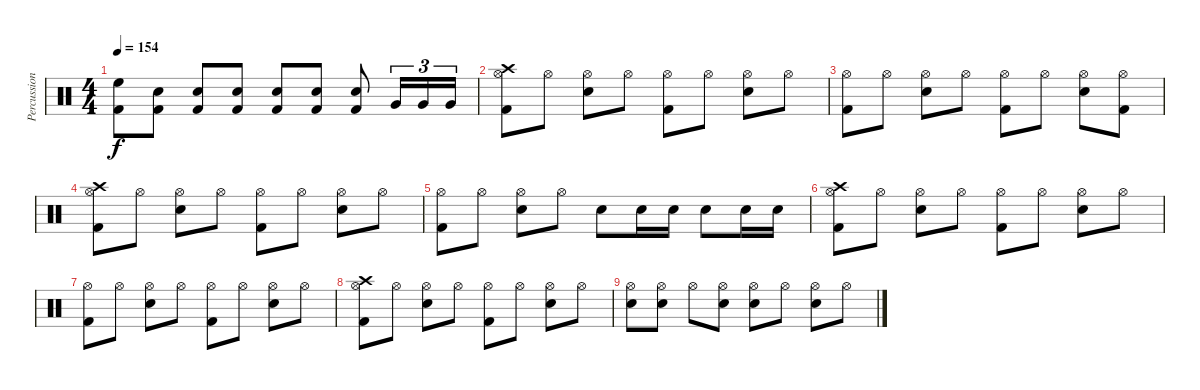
\track ("Percussion" "Percussion") {instrument percussion}
\staff {score}
\articulation defaults
\ts (4 4)
\tempo 154
\clef neutral
\ks c
("High Floor Tom (hit)" "Kick (hit) 2").8{dy f} ("Snare (hit) 2" "Kick (hit) 2").8 ("Snare (hit) 2" "Kick (hit) 2").8 ("Snare (hit) 2" "Kick (hit) 2").8 ("Snare (hit) 2" "Kick (hit) 2").8 ("Snare (hit) 2" "Kick (hit) 2").8 ("Snare (hit) 2" "Kick (hit) 2").8 "Very Low Tom (hit)".16{tu (3 2)} "Very Low Tom (hit)".16{tu (3 2)} "Very Low Tom (hit)".16{tu (3 2)} |
("Hi-Hat (open)" "Crash high (hit)" "Kick (hit) 2").8 "Hi-Hat (open)".8 ("Hi-Hat (open)" "Snare (hit) 2").8 "Hi-Hat (open)".8 ("Hi-Hat (open)" "Kick (hit) 2").8 "Hi-Hat (open)".8 ("Hi-Hat (open)" "Snare (hit) 2").8 "Hi-Hat (open)".8 |
("Hi-Hat (open)" "Kick (hit) 2").8 "Hi-Hat (open)".8 ("Hi-Hat (open)" "Snare (hit) 2").8 "Hi-Hat (open)".8 ("Hi-Hat (open)" "Kick (hit) 2").8 "Hi-Hat (open)".8 ("Hi-Hat (open)" "Snare (hit) 2").8 ("Hi-Hat (open)" "Kick (hit) 2").8 |
("Hi-Hat (open)" "Crash high (hit)" "Kick (hit) 2").8 "Hi-Hat (open)".8 ("Hi-Hat (open)" "Snare (hit) 2").8 "Hi-Hat (open)".8 ("Hi-Hat (open)" "Kick (hit) 2").8 "Hi-Hat (open)".8 ("Hi-Hat (open)" "Snare (hit) 2").8 "Hi-Hat (open)".8 |
("Hi-Hat (open)" "Kick (hit) 2").8 "Hi-Hat (open)".8 ("Hi-Hat (open)" "Snare (hit) 2").8 "Hi-Hat (open)".8 "Snare (hit) 2".8 "Snare (hit) 2".16 "Snare (hit) 2".16 "Snare (hit) 2".8 "Snare (hit) 2".16 "Snare (hit) 2".16 |
("Hi-Hat (open)" "Crash high (hit)" "Kick (hit) 2").8 "Hi-Hat (open)".8 ("Hi-Hat (open)" "Snare (hit) 2").8 "Hi-Hat (open)".8 ("Hi-Hat (open)" "Kick (hit) 2").8 "Hi-Hat (open)".8 ("Hi-Hat (open)" "Snare (hit) 2").8 "Hi-Hat (open)".8 |
("Hi-Hat (open)" "Kick (hit) 2").8 "Hi-Hat (open)".8 ("Hi-Hat (open)" "Snare (hit) 2").8 "Hi-Hat (open)".8 ("Hi-Hat (open)" "Kick (hit) 2").8 "Hi-Hat (open)".8 ("Hi-Hat (open)" "Snare (hit) 2").8 "Hi-Hat (open)".8 |
("Hi-Hat (open)" "Crash high (hit)" "Kick (hit) 2").8 "Hi-Hat (open)".8 ("Hi-Hat (open)" "Snare (hit) 2").8 "Hi-Hat (open)".8 ("Hi-Hat (open)" "Kick (hit) 2").8 "Hi-Hat (open)".8 ("Hi-Hat (open)" "Snare (hit) 2").8 "Hi-Hat (open)".8 |
("Hi-Hat (open)" "Snare (hit) 2").8 ("Hi-Hat (open)" "Snare (hit) 2").8 "Hi-Hat (open)".8 ("Hi-Hat (open)" "Snare (hit) 2").8 ("Hi-Hat (open)" "Snare (hit) 2").8 "Hi-Hat (open)".8 ("Hi-Hat (open)" "Snare (hit) 2").8 "Hi-Hat (open)".8
